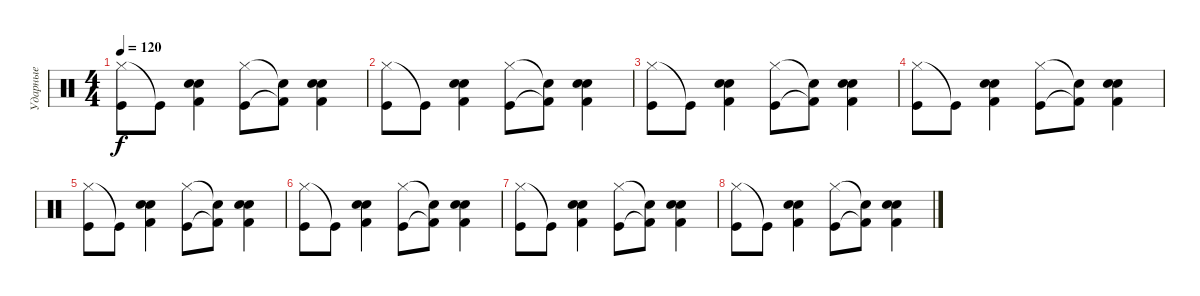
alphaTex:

\track ("Ударные" "Ударные") {instrument percussion}
\staff {score}
\articulation defaults
\ts (4 4)
\tempo 120
\clef neutral
\ks c
("Hi-Hat (closed)" "Kick (hit)").8{dy f} "Kick (hit)"{t}.8 ("Snare (hit) 2" "Kick (hit) 2" "Electric Snare (hit)").4 ("Hi-Hat (closed)" "Kick (hit)").8 ("Snare (hit) 2"{t} "Kick (hit) 2"{t}).8 ("Snare (hit) 2" "Kick (hit) 2" "Electric Snare (hit)").4 |
("Hi-Hat (closed)" "Kick (hit)").8 "Kick (hit)"{t}.8 ("Snare (hit) 2" "Kick (hit) 2" "Electric Snare (hit)").4 ("Hi-Hat (closed)" "Kick (hit)").8 ("Snare (hit) 2"{t} "Kick (hit) 2"{t}).8 ("Snare (hit) 2" "Kick (hit) 2" "Electric Snare (hit)").4 |
("Hi-Hat (closed)" "Kick (hit)").8 "Kick (hit)"{t}.8 ("Snare (hit) 2" "Kick (hit) 2" "Electric Snare (hit)").4 ("Hi-Hat (closed)" "Kick (hit)").8 ("Snare (hit) 2"{t} "Kick (hit) 2"{t}).8 ("Snare (hit) 2" "Kick (hit) 2" "Electric Snare (hit)").4 |
("Hi-Hat (closed)" "Kick (hit)").8 "Kick (hit)"{t}.8 ("Snare (hit) 2" "Kick (hit) 2" "Electric Snare (hit)").4 ("Hi-Hat (closed)" "Kick (hit)").8 ("Snare (hit) 2"{t} "Kick (hit) 2"{t}).8 ("Snare (hit) 2" "Kick (hit) 2" "Electric Snare (hit)").4 |
("Hi-Hat (closed)" "Kick (hit)").8 "Kick (hit)"{t}.8 ("Snare (hit) 2" "Kick (hit) 2" "Electric Snare (hit)").4 ("Hi-Hat (closed)" "Kick (hit)").8 ("Snare (hit) 2"{t} "Kick (hit) 2"{t}).8 ("Snare (hit) 2" "Kick (hit) 2" "Electric Snare (hit)").4 |
("Hi-Hat (closed)" "Kick (hit)").8 "Kick (hit)"{t}.8 ("Snare (hit) 2" "Kick (hit) 2" "Electric Snare (hit)").4 ("Hi-Hat (closed)" "Kick (hit)").8 ("Snare (hit) 2"{t} "Kick (hit) 2"{t}).8 ("Snare (hit) 2" "Kick (hit) 2" "Electric Snare (hit)").4 |
("Hi-Hat (closed)" "Kick (hit)").8 "Kick (hit)"{t}.8 ("Snare (hit) 2" "Kick (hit) 2" "Electric Snare (hit)").4 ("Hi-Hat (closed)" "Kick (hit)").8 ("Snare (hit) 2"{t} "Kick (hit) 2"{t}).8 ("Snare (hit) 2" "Kick (hit) 2" "Electric Snare (hit)").4 |
("Hi-Hat (closed)" "Kick (hit)").8 "Kick (hit)"{t}.8 ("Snare (hit) 2" "Kick (hit) 2" "Electric Snare (hit)").4 ("Hi-Hat (closed)" "Kick (hit)").8 ("Snare (hit) 2"{t} "Kick (hit) 2"{t}).8 ("Snare (hit) 2" "Kick (hit) 2" "Electric Snare (hit)").4
